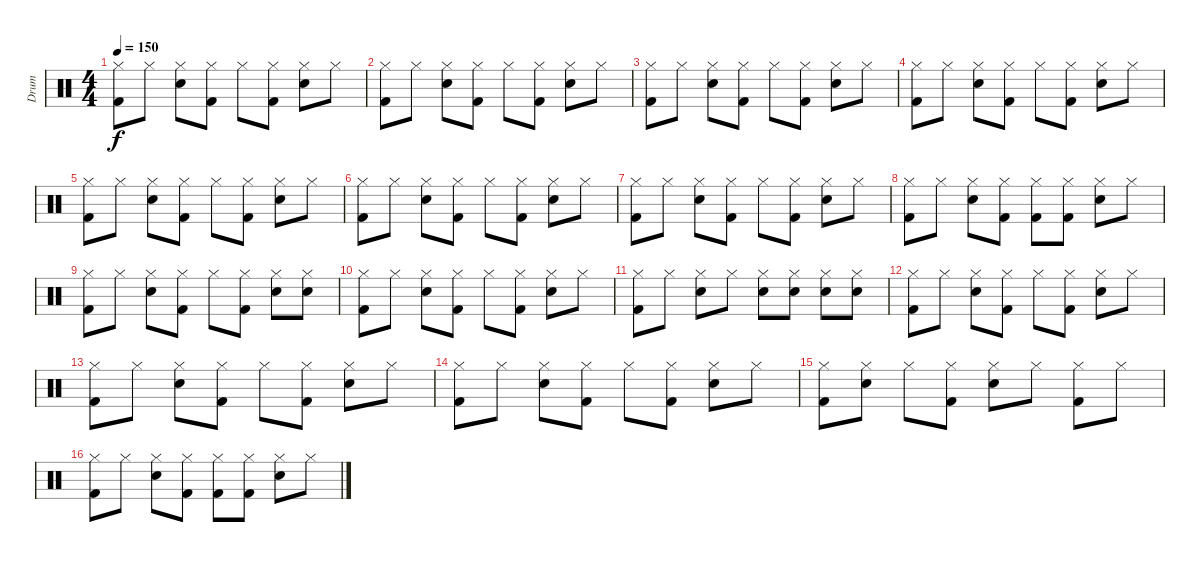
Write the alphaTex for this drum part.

\track ("Drum" "Drum") {instrument percussion}
\staff {score}
\articulation defaults
\ts (4 4)
\tempo 150
\clef neutral
\ks c
("Hi-Hat (closed)" "Kick (hit) 2").8{dy f} "Hi-Hat (closed)".8 ("Hi-Hat (closed)" "Snare (hit) 2").8 ("Hi-Hat (closed)" "Kick (hit) 2").8 "Hi-Hat (closed)".8 ("Hi-Hat (closed)" "Kick (hit) 2").8 ("Hi-Hat (closed)" "Snare (hit) 2").8 "Hi-Hat (closed)".8 |
("Hi-Hat (closed)" "Kick (hit) 2").8 "Hi-Hat (closed)".8 ("Hi-Hat (closed)" "Snare (hit) 2").8 ("Hi-Hat (closed)" "Kick (hit) 2").8 "Hi-Hat (closed)".8 ("Hi-Hat (closed)" "Kick (hit) 2").8 ("Hi-Hat (closed)" "Snare (hit) 2").8 "Hi-Hat (closed)".8 |
("Hi-Hat (closed)" "Kick (hit) 2").8 "Hi-Hat (closed)".8 ("Hi-Hat (closed)" "Snare (hit) 2").8 ("Hi-Hat (closed)" "Kick (hit) 2").8 "Hi-Hat (closed)".8 ("Hi-Hat (closed)" "Kick (hit) 2").8 ("Hi-Hat (closed)" "Snare (hit) 2").8 "Hi-Hat (closed)".8 |
("Hi-Hat (closed)" "Kick (hit) 2").8 "Hi-Hat (closed)".8 ("Hi-Hat (closed)" "Snare (hit) 2").8 ("Hi-Hat (closed)" "Kick (hit) 2").8 "Hi-Hat (closed)".8 ("Hi-Hat (closed)" "Kick (hit) 2").8 ("Hi-Hat (closed)" "Snare (hit) 2").8 "Hi-Hat (closed)".8 |
("Hi-Hat (closed)" "Kick (hit) 2").8 "Hi-Hat (closed)".8 ("Hi-Hat (closed)" "Snare (hit) 2").8 ("Hi-Hat (closed)" "Kick (hit) 2").8 "Hi-Hat (closed)".8 ("Kick (hit) 2" "Hi-Hat (closed)").8 ("Snare (hit) 2" "Hi-Hat (closed)").8 "Hi-Hat (closed)".8 |
("Hi-Hat (closed)" "Kick (hit) 2").8 "Hi-Hat (closed)".8 ("Hi-Hat (closed)" "Snare (hit) 2").8 ("Hi-Hat (closed)" "Kick (hit) 2").8 "Hi-Hat (closed)".8 ("Hi-Hat (closed)" "Kick (hit) 2").8 ("Hi-Hat (closed)" "Snare (hit) 2").8 "Hi-Hat (closed)".8 |
("Hi-Hat (closed)" "Kick (hit) 2").8 "Hi-Hat (closed)".8 ("Hi-Hat (closed)" "Snare (hit) 2").8 ("Hi-Hat (closed)" "Kick (hit) 2").8 "Hi-Hat (closed)".8 ("Kick (hit) 2" "Hi-Hat (closed)").8 ("Snare (hit) 2" "Hi-Hat (closed)").8 "Hi-Hat (closed)".8 |
("Kick (hit) 2" "Hi-Hat (closed)").8 "Hi-Hat (closed)".8 ("Snare (hit) 2" "Hi-Hat (closed)").8 ("Hi-Hat (closed)" "Kick (hit) 2").8 ("Hi-Hat (closed)" "Kick (hit) 2").8 ("Hi-Hat (closed)" "Kick (hit) 2").8 ("Hi-Hat (closed)" "Snare (hit) 2").8 "Hi-Hat (closed)".8 |
("Hi-Hat (closed)" "Kick (hit) 2").8 "Hi-Hat (closed)".8 ("Hi-Hat (closed)" "Snare (hit) 2").8 ("Hi-Hat (closed)" "Kick (hit) 2").8 "Hi-Hat (closed)".8 ("Hi-Hat (closed)" "Kick (hit) 2").8 ("Hi-Hat (closed)" "Snare (hit) 2").8 ("Hi-Hat (closed)" "Snare (hit) 2").8 |
("Hi-Hat (closed)" "Kick (hit) 2").8 "Hi-Hat (closed)".8 ("Hi-Hat (closed)" "Snare (hit) 2").8 ("Hi-Hat (closed)" "Kick (hit) 2").8 "Hi-Hat (closed)".8 ("Hi-Hat (closed)" "Kick (hit) 2").8 ("Hi-Hat (closed)" "Snare (hit) 2").8 "Hi-Hat (closed)".8 |
("Hi-Hat (closed)" "Kick (hit) 2").8 "Hi-Hat (closed)".8 ("Hi-Hat (closed)" "Snare (hit) 2").8 "Hi-Hat (closed)".8 ("Hi-Hat (closed)" "Snare (hit) 2").8 ("Hi-Hat (closed)" "Snare (hit) 2").8 ("Hi-Hat (closed)" "Snare (hit) 2").8 ("Hi-Hat (closed)" "Snare (hit) 2").8 |
("Hi-Hat (closed)" "Kick (hit) 2").8 "Hi-Hat (closed)".8 ("Hi-Hat (closed)" "Snare (hit) 2").8 ("Hi-Hat (closed)" "Kick (hit) 2").8 "Hi-Hat (closed)".8 ("Hi-Hat (closed)" "Kick (hit) 2").8 ("Hi-Hat (closed)" "Snare (hit) 2").8 "Hi-Hat (closed)".8 |
("Hi-Hat (closed)" "Kick (hit) 2").8 "Hi-Hat (closed)".8 ("Hi-Hat (closed)" "Snare (hit) 2").8 ("Hi-Hat (closed)" "Kick (hit) 2").8 "Hi-Hat (closed)".8 ("Kick (hit) 2" "Hi-Hat (closed)").8 ("Hi-Hat (closed)" "Snare (hit) 2").8 "Hi-Hat (closed)".8 |
("Hi-Hat (closed)" "Kick (hit) 2").8 "Hi-Hat (closed)".8 ("Hi-Hat (closed)" "Snare (hit) 2").8 ("Hi-Hat (closed)" "Kick (hit) 2").8 "Hi-Hat (closed)".8 ("Hi-Hat (closed)" "Kick (hit) 2").8 ("Hi-Hat (closed)" "Snare (hit) 2").8 "Hi-Hat (closed)".8 |
("Hi-Hat (closed)" "Kick (hit) 2").8 ("Hi-Hat (closed)" "Snare (hit) 2").8 "Hi-Hat (closed)".8 ("Kick (hit) 2" "Hi-Hat (closed)").8 ("Snare (hit) 2" "Hi-Hat (closed)").8 "Hi-Hat (closed)".8 ("Hi-Hat (closed)" "Kick (hit) 2").8 "Hi-Hat (closed)".8 |
("Hi-Hat (closed)" "Kick (hit) 2").8 "Hi-Hat (closed)".8 ("Hi-Hat (closed)" "Snare (hit) 2").8 ("Hi-Hat (closed)" "Kick (hit) 2").8 ("Hi-Hat (closed)" "Kick (hit) 2").8 ("Hi-Hat (closed)" "Kick (hit) 2").8 ("Hi-Hat (closed)" "Snare (hit) 2").8 "Hi-Hat (closed)".8
